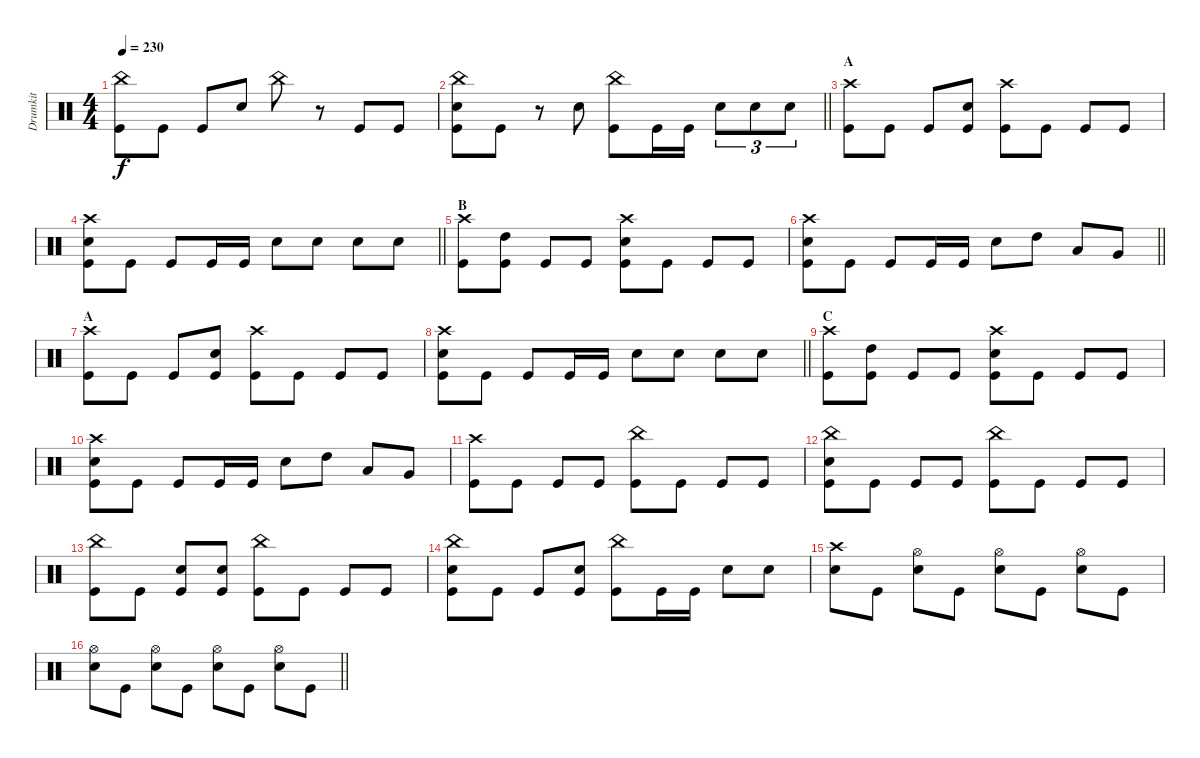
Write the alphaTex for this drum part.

\track ("Drumkit" "Drumkit") {instrument percussion}
\staff {score}
\articulation defaults
\ts (4 4)
\tempo 230
\clef neutral
\ks c
("China (hit)" "Kick (hit)").8{dy f} "Kick (hit)".8 "Kick (hit)".8 "Snare (hit) 2".8 "China (hit)".8 r.8 "Kick (hit)".8 "Kick (hit)".8 |
\barLineRight lightlight
("China (hit)" "Snare (hit) 2" "Kick (hit)").8 "Kick (hit)".8 r.8 "Snare (hit) 2".8 ("China (hit)" "Kick (hit)").8 "Kick (hit)".16 "Kick (hit)".16 "Snare (hit) 2".8{tu (3 2)} "Snare (hit) 2".8{tu (3 2)} "Snare (hit) 2".8{tu (3 2)} |
\section ("" "A")
("Crash high (hit)" "Kick (hit)").8 "Kick (hit)".8 "Kick (hit)".8 ("Snare (hit) 2" "Kick (hit)").8 ("Crash high (hit)" "Kick (hit)").8 "Kick (hit)".8 "Kick (hit)".8 "Kick (hit)".8 |
\barLineRight lightlight
("Crash high (hit)" "Snare (hit) 2" "Kick (hit)").8 "Kick (hit)".8 "Kick (hit)".8 "Kick (hit)".16 "Kick (hit)".16 "Snare (hit) 2".8 "Snare (hit) 2".8 "Snare (hit) 2".8 "Snare (hit) 2".8 |
\section ("" "B")
("Crash high (hit)" "Kick (hit)").8 ("High Tom (hit)" "Kick (hit)").8 "Kick (hit)".8 "Kick (hit)".8 ("Crash high (hit)" "Snare (hit) 2" "Kick (hit)").8 "Kick (hit)".8 "Kick (hit)".8 "Kick (hit)".8 |
\barLineRight lightlight
("Crash high (hit)" "Snare (hit) 2" "Kick (hit)").8 "Kick (hit)".8 "Kick (hit)".8 "Kick (hit)".16 "Kick (hit)".16 "Snare (hit) 2".8 "High Tom (hit)".8 "Low Tom (hit)".8 "Very Low Tom (hit)".8 |
\section ("" "A")
("Crash high (hit)" "Kick (hit)").8 "Kick (hit)".8 "Kick (hit)".8 ("Snare (hit) 2" "Kick (hit)").8 ("Crash high (hit)" "Kick (hit)").8 "Kick (hit)".8 "Kick (hit)".8 "Kick (hit)".8 |
\barLineRight lightlight
("Crash high (hit)" "Snare (hit) 2" "Kick (hit)").8 "Kick (hit)".8 "Kick (hit)".8 "Kick (hit)".16 "Kick (hit)".16 "Snare (hit) 2".8 "Snare (hit) 2".8 "Snare (hit) 2".8 "Snare (hit) 2".8 |
\section ("" "C")
("Crash high (hit)" "Kick (hit)").8 ("High Tom (hit)" "Kick (hit)").8 "Kick (hit)".8 "Kick (hit)".8 ("Crash high (hit)" "Snare (hit) 2" "Kick (hit)").8 "Kick (hit)".8 "Kick (hit)".8 "Kick (hit)".8 |
("Crash high (hit)" "Snare (hit) 2" "Kick (hit)").8 "Kick (hit)".8 "Kick (hit)".8 "Kick (hit)".16 "Kick (hit)".16 "Snare (hit) 2".8 "High Tom (hit)".8 "Low Tom (hit)".8 "Very Low Tom (hit)".8 |
("Crash high (hit)" "Kick (hit)").8 "Kick (hit)".8 "Kick (hit)".8 "Kick (hit)".8 ("China (hit)" "Kick (hit)").8 "Kick (hit)".8 "Kick (hit)".8 "Kick (hit)".8 |
("China (hit)" "Snare (hit) 2" "Kick (hit)").8 "Kick (hit)".8 "Kick (hit)".8 "Kick (hit)".8 ("China (hit)" "Kick (hit)").8 "Kick (hit)".8 "Kick (hit)".8 "Kick (hit)".8 |
("China (hit)" "Kick (hit)").8 "Kick (hit)".8 ("Snare (hit) 2" "Kick (hit)").8 ("Snare (hit) 2" "Kick (hit)").8 ("China (hit)" "Kick (hit)").8 "Kick (hit)".8 "Kick (hit)".8 "Kick (hit)".8 |
("China (hit)" "Snare (hit) 2" "Kick (hit)").8 "Kick (hit)".8 "Kick (hit)".8 ("Snare (hit) 2" "Kick (hit)").8 ("China (hit)" "Kick (hit)").8 "Kick (hit)".16 "Kick (hit)".16 "Snare (hit) 2".8 "Snare (hit) 2".8 |
("Crash high (hit)" "Snare (hit) 2").8 "Kick (hit)".8 ("Hi-Hat (open)" "Snare (hit) 2").8 "Kick (hit)".8 ("Hi-Hat (open)" "Snare (hit) 2").8 "Kick (hit)".8 ("Hi-Hat (open)" "Snare (hit) 2").8 "Kick (hit)".8 |
\barLineRight lightlight
("Hi-Hat (open)" "Snare (hit) 2").8 "Kick (hit)".8 ("Hi-Hat (open)" "Snare (hit) 2").8 "Kick (hit)".8 ("Hi-Hat (open)" "Snare (hit) 2").8 "Kick (hit)".8 ("Hi-Hat (open)" "Snare (hit) 2").8 "Kick (hit)".8
